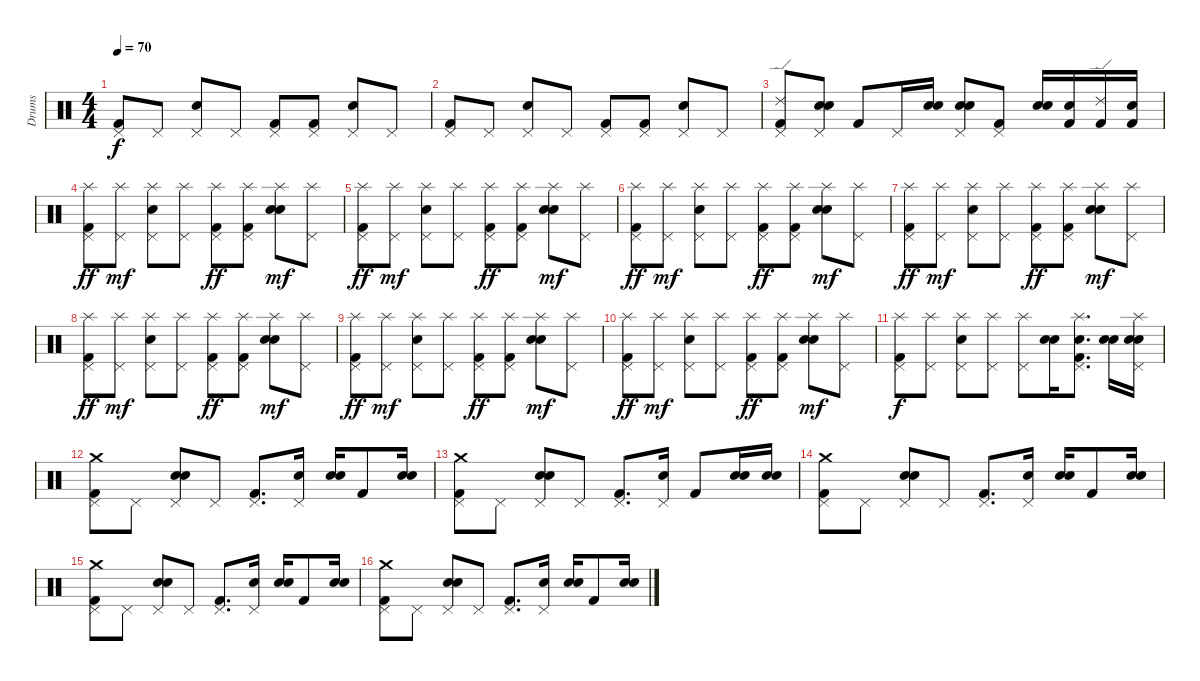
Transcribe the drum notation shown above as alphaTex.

\track ("Drums" "Drums") {instrument percussion}
\staff {score}
\articulation defaults
\ts (4 4)
\tempo 70
\clef neutral
\ks c
("Pedal Hi-Hat (hit)" "Kick (hit) 2").8{dy f} "Pedal Hi-Hat (hit)".8 ("Pedal Hi-Hat (hit)" "Snare (hit) 2").8 "Pedal Hi-Hat (hit)".8 ("Pedal Hi-Hat (hit)" "Kick (hit) 2").8 ("Pedal Hi-Hat (hit)" "Kick (hit) 2").8 ("Pedal Hi-Hat (hit)" "Snare (hit) 2").8 "Pedal Hi-Hat (hit)".8 |
("Pedal Hi-Hat (hit)" "Kick (hit) 2").8 "Pedal Hi-Hat (hit)".8 ("Pedal Hi-Hat (hit)" "Snare (hit) 2").8 "Pedal Hi-Hat (hit)".8 ("Pedal Hi-Hat (hit)" "Kick (hit) 2").8 ("Pedal Hi-Hat (hit)" "Kick (hit) 2").8 ("Pedal Hi-Hat (hit)" "Snare (hit) 2").8 "Pedal Hi-Hat (hit)".8 |
("Ride (edge) 2" "Pedal Hi-Hat (hit)" "Kick (hit) 2").8 ("Pedal Hi-Hat (hit)" "Electric Snare (hit)" "Snare (hit) 2").8 "Kick (hit) 2".8 "Pedal Hi-Hat (hit)".16 ("Snare (hit) 2" "Electric Snare (hit)").16 ("Pedal Hi-Hat (hit)" "Snare (hit) 2" "Electric Snare (hit)").8 ("Pedal Hi-Hat (hit)" "Kick (hit) 2").8 ("Electric Snare (hit)" "Snare (hit) 2").16 ("Electric Snare (hit)" "Kick (hit) 2").16 ("Ride (edge) 2" "Kick (hit) 2").16 ("Electric Snare (hit)" "Kick (hit) 2").16 |
("Splash (hit)" "Pedal Hi-Hat (hit)" "Kick (hit) 2").8{dy ff} ("Splash (hit)" "Pedal Hi-Hat (hit)").8{dy mf} ("Splash (hit)" "Pedal Hi-Hat (hit)" "Snare (hit) 2").8 ("Splash (hit)" "Pedal Hi-Hat (hit)").8 ("Splash (hit)" "Pedal Hi-Hat (hit)" "Kick (hit) 2").8{dy ff} ("Splash (hit)" "Pedal Hi-Hat (hit)" "Kick (hit) 2").8 ("Splash (hit)" "Electric Snare (hit)" "Snare (hit) 2").8{dy mf} ("Splash (hit)" "Pedal Hi-Hat (hit)").8 |
("Splash (hit)" "Pedal Hi-Hat (hit)" "Kick (hit) 2").8{dy ff} ("Splash (hit)" "Pedal Hi-Hat (hit)").8{dy mf} ("Splash (hit)" "Pedal Hi-Hat (hit)" "Snare (hit) 2").8 ("Splash (hit)" "Pedal Hi-Hat (hit)").8 ("Splash (hit)" "Pedal Hi-Hat (hit)" "Kick (hit) 2").8{dy ff} ("Splash (hit)" "Pedal Hi-Hat (hit)" "Kick (hit) 2").8 ("Splash (hit)" "Electric Snare (hit)" "Snare (hit) 2").8{dy mf} ("Splash (hit)" "Pedal Hi-Hat (hit)").8 |
("Splash (hit)" "Pedal Hi-Hat (hit)" "Kick (hit) 2").8{dy ff} ("Splash (hit)" "Pedal Hi-Hat (hit)").8{dy mf} ("Splash (hit)" "Pedal Hi-Hat (hit)" "Snare (hit) 2").8 ("Splash (hit)" "Pedal Hi-Hat (hit)").8 ("Splash (hit)" "Pedal Hi-Hat (hit)" "Kick (hit) 2").8{dy ff} ("Splash (hit)" "Pedal Hi-Hat (hit)" "Kick (hit) 2").8 ("Splash (hit)" "Electric Snare (hit)" "Snare (hit) 2").8{dy mf} ("Splash (hit)" "Pedal Hi-Hat (hit)").8 |
("Splash (hit)" "Pedal Hi-Hat (hit)" "Kick (hit) 2").8{dy ff} ("Splash (hit)" "Pedal Hi-Hat (hit)").8{dy mf} ("Splash (hit)" "Pedal Hi-Hat (hit)" "Snare (hit) 2").8 ("Splash (hit)" "Pedal Hi-Hat (hit)").8 ("Splash (hit)" "Pedal Hi-Hat (hit)" "Kick (hit) 2").8{dy ff} ("Splash (hit)" "Pedal Hi-Hat (hit)" "Kick (hit) 2").8 ("Splash (hit)" "Electric Snare (hit)" "Snare (hit) 2").8{dy mf} ("Splash (hit)" "Pedal Hi-Hat (hit)").8 |
("Splash (hit)" "Pedal Hi-Hat (hit)" "Kick (hit) 2").8{dy ff} ("Splash (hit)" "Pedal Hi-Hat (hit)").8{dy mf} ("Splash (hit)" "Pedal Hi-Hat (hit)" "Snare (hit) 2").8 ("Splash (hit)" "Pedal Hi-Hat (hit)").8 ("Splash (hit)" "Pedal Hi-Hat (hit)" "Kick (hit) 2").8{dy ff} ("Splash (hit)" "Pedal Hi-Hat (hit)" "Kick (hit) 2").8 ("Splash (hit)" "Electric Snare (hit)" "Snare (hit) 2").8{dy mf} ("Splash (hit)" "Pedal Hi-Hat (hit)").8 |
("Splash (hit)" "Pedal Hi-Hat (hit)" "Kick (hit) 2").8{dy ff} ("Splash (hit)" "Pedal Hi-Hat (hit)").8{dy mf} ("Splash (hit)" "Pedal Hi-Hat (hit)" "Snare (hit) 2").8 ("Splash (hit)" "Pedal Hi-Hat (hit)").8 ("Splash (hit)" "Pedal Hi-Hat (hit)" "Kick (hit) 2").8{dy ff} ("Splash (hit)" "Pedal Hi-Hat (hit)" "Kick (hit) 2").8 ("Splash (hit)" "Electric Snare (hit)" "Snare (hit) 2").8{dy mf} ("Splash (hit)" "Pedal Hi-Hat (hit)").8 |
("Splash (hit)" "Pedal Hi-Hat (hit)" "Kick (hit) 2").8{dy ff} ("Splash (hit)" "Pedal Hi-Hat (hit)").8{dy mf} ("Splash (hit)" "Pedal Hi-Hat (hit)" "Snare (hit) 2").8 ("Splash (hit)" "Pedal Hi-Hat (hit)").8 ("Splash (hit)" "Pedal Hi-Hat (hit)" "Kick (hit) 2").8{dy ff} ("Splash (hit)" "Pedal Hi-Hat (hit)" "Kick (hit) 2").8 ("Splash (hit)" "Electric Snare (hit)" "Snare (hit) 2").8{dy mf} ("Splash (hit)" "Pedal Hi-Hat (hit)").8 |
("Splash (hit)" "Pedal Hi-Hat (hit)" "Kick (hit) 2").8{dy f} ("Splash (hit)" "Pedal Hi-Hat (hit)").8 ("Splash (hit)" "Pedal Hi-Hat (hit)" "Snare (hit) 2").8 ("Splash (hit)" "Pedal Hi-Hat (hit)").8 ("Splash (hit)" "Pedal Hi-Hat (hit)").8 ("Electric Snare (hit)" "Snare (hit) 2").16 ("Splash (hit)" "Pedal Hi-Hat (hit)" "Electric Snare (hit)" "Kick (hit) 2").8{d} ("Electric Snare (hit)" "Snare (hit) 2").16 ("Splash (hit)" "Pedal Hi-Hat (hit)" "Electric Snare (hit)" "Snare (hit) 2").16 |
("Crash medium (hit)" "Pedal Hi-Hat (hit)" "Kick (hit) 2").8 "Pedal Hi-Hat (hit)".8 ("Pedal Hi-Hat (hit)" "Electric Snare (hit)" "Snare (hit) 2").8 "Pedal Hi-Hat (hit)".8 ("Pedal Hi-Hat (hit)" "Kick (hit) 2").8{d} ("Pedal Hi-Hat (hit)" "Snare (hit) 2").16 ("Electric Snare (hit)" "Snare (hit) 2").16 "Kick (hit) 2".8 ("Electric Snare (hit)" "Snare (hit) 2").16 |
("Crash medium (hit)" "Pedal Hi-Hat (hit)" "Kick (hit) 2").8 "Pedal Hi-Hat (hit)".8 ("Pedal Hi-Hat (hit)" "Electric Snare (hit)" "Snare (hit) 2").8 "Pedal Hi-Hat (hit)".8 ("Pedal Hi-Hat (hit)" "Kick (hit) 2").8{d} ("Pedal Hi-Hat (hit)" "Snare (hit) 2").16 "Kick (hit) 2".8 ("Electric Snare (hit)" "Snare (hit) 2").16 ("Electric Snare (hit)" "Snare (hit) 2").16 |
("Crash medium (hit)" "Pedal Hi-Hat (hit)" "Kick (hit) 2").8 "Pedal Hi-Hat (hit)".8 ("Pedal Hi-Hat (hit)" "Electric Snare (hit)" "Snare (hit) 2").8 "Pedal Hi-Hat (hit)".8 ("Pedal Hi-Hat (hit)" "Kick (hit) 2").8{d} ("Pedal Hi-Hat (hit)" "Snare (hit) 2").16 ("Electric Snare (hit)" "Snare (hit) 2").16 "Kick (hit) 2".8 ("Electric Snare (hit)" "Snare (hit) 2").16 |
("Crash medium (hit)" "Pedal Hi-Hat (hit)" "Kick (hit) 2").8 "Pedal Hi-Hat (hit)".8 ("Pedal Hi-Hat (hit)" "Electric Snare (hit)" "Snare (hit) 2").8 "Pedal Hi-Hat (hit)".8 ("Pedal Hi-Hat (hit)" "Kick (hit) 2").8{d} ("Pedal Hi-Hat (hit)" "Snare (hit) 2").16 ("Electric Snare (hit)" "Snare (hit) 2").16 "Kick (hit) 2".8 ("Electric Snare (hit)" "Snare (hit) 2").16 |
("Crash medium (hit)" "Pedal Hi-Hat (hit)" "Kick (hit) 2").8 "Pedal Hi-Hat (hit)".8 ("Pedal Hi-Hat (hit)" "Electric Snare (hit)" "Snare (hit) 2").8 "Pedal Hi-Hat (hit)".8 ("Pedal Hi-Hat (hit)" "Kick (hit) 2").8{d} ("Pedal Hi-Hat (hit)" "Snare (hit) 2").16 ("Electric Snare (hit)" "Snare (hit) 2").16 "Kick (hit) 2".8 ("Electric Snare (hit)" "Snare (hit) 2").16
